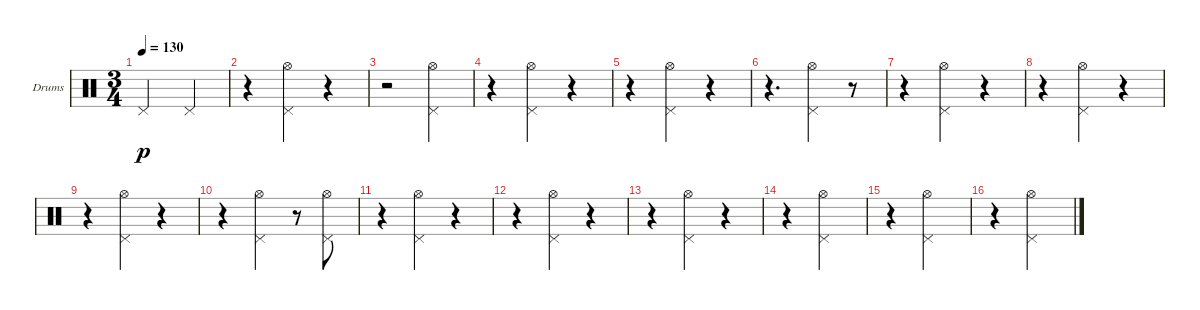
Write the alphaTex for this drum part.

\bracketExtendMode groupsimilarinstruments
\firstSystemTrackNameOrientation horizontal
\otherSystemsTrackNameOrientation horizontal
\track ("HH" "Drums") {instrument percussion}
\staff {score}
\articulation defaults
\ts (3 4)
\tempo 130
\clef neutral
\ks c "Pedal Hi-Hat (hit)".2{dy p} "Pedal Hi-Hat (hit)".4
|
r.4 ("Pedal Hi-Hat (hit)" "Hi-Hat (open)").4 r.4 |
r.2 ("Pedal Hi-Hat (hit)" "Hi-Hat (open)").4 |
r.4 ("Pedal Hi-Hat (hit)" "Hi-Hat (open)").4 r.4 |
r.4 ("Pedal Hi-Hat (hit)" "Hi-Hat (open)").4 r.4 |
r.4{d} ("Pedal Hi-Hat (hit)" "Hi-Hat (open)").4 r.8 |
r.4 ("Pedal Hi-Hat (hit)" "Hi-Hat (open)").4 r.4 |
r.4 ("Pedal Hi-Hat (hit)" "Hi-Hat (open)").4 r.4 |
r.4 ("Pedal Hi-Hat (hit)" "Hi-Hat (open)").4 r.4 |
r.4 ("Pedal Hi-Hat (hit)" "Hi-Hat (open)").4 r.8 ("Pedal Hi-Hat (hit)" "Hi-Hat (open)").8 |
r.4 ("Pedal Hi-Hat (hit)" "Hi-Hat (open)").4 r.4 |
r.4 ("Pedal Hi-Hat (hit)" "Hi-Hat (open)").4 r.4 |
r.4 ("Pedal Hi-Hat (hit)" "Hi-Hat (open)").4 r.4 |
r.4 ("Pedal Hi-Hat (hit)" "Hi-Hat (open)").2 |
r.4 ("Pedal Hi-Hat (hit)" "Hi-Hat (open)").2 |
r.4 ("Pedal Hi-Hat (hit)" "Hi-Hat (open)").2
